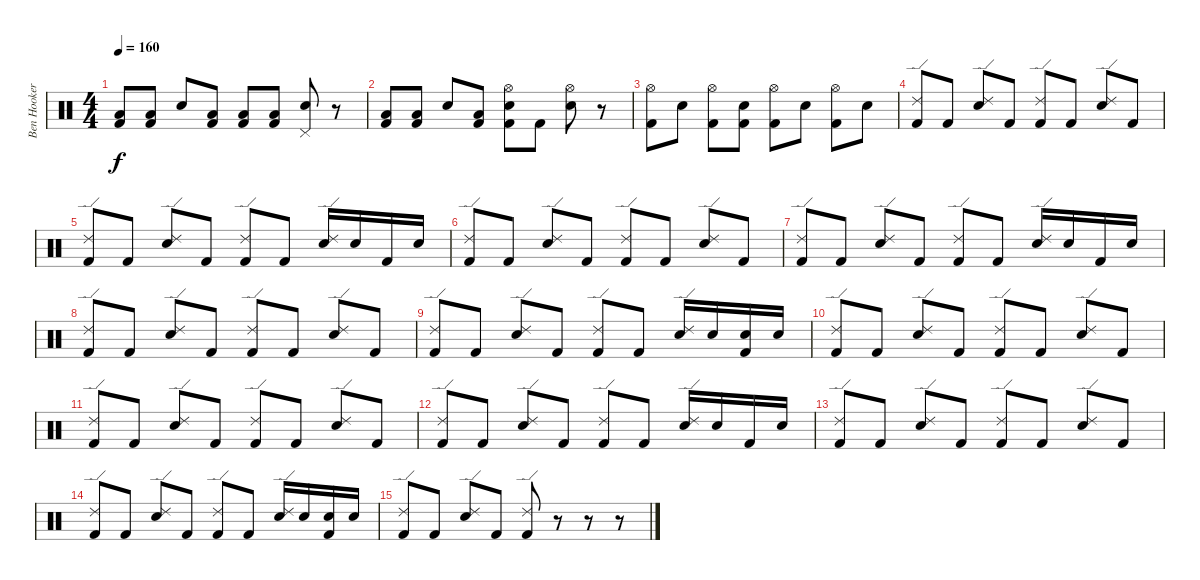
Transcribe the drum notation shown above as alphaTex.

\track ("Ben Hooker" "Ben Hooker") {instrument percussion}
\staff {score}
\articulation defaults
\ts (4 4)
\tempo 160
\clef neutral
\ks c
("Low Tom (hit)" "Kick (hit) 2").8{dy f} ("Low Tom (hit)" "Kick (hit) 2").8 "Snare (hit) 2".8 ("Low Tom (hit)" "Kick (hit) 2").8 ("Low Tom (hit)" "Kick (hit) 2").8 ("Low Tom (hit)" "Kick (hit) 2").8 ("Pedal Hi-Hat (hit)" "Snare (hit) 2").8 r.8 |
("Low Tom (hit)" "Kick (hit) 2").8 ("Low Tom (hit)" "Kick (hit) 2").8 "Snare (hit) 2".8 ("Low Tom (hit)" "Kick (hit) 2").8 ("Hi-Hat (open)" "Snare (hit) 2" "Kick (hit) 2").8 "Kick (hit) 2".8 ("Hi-Hat (open)" "Snare (hit) 2").8 r.8 |
("Hi-Hat (open)" "Kick (hit) 2").8 "Snare (hit) 2".8 ("Hi-Hat (open)" "Kick (hit) 2").8 ("Snare (hit) 2" "Kick (hit) 2").8 ("Hi-Hat (open)" "Kick (hit) 2").8 "Snare (hit) 2".8 ("Hi-Hat (open)" "Kick (hit) 2").8 "Snare (hit) 2".8 |
("Ride (edge) 2" "Kick (hit) 2").8 "Kick (hit) 2".8 ("Ride (edge) 2" "Snare (hit) 2").8 "Kick (hit) 2".8 ("Ride (edge) 2" "Kick (hit) 2").8 "Kick (hit) 2".8 ("Ride (edge) 2" "Snare (hit) 2").8 "Kick (hit) 2".8 |
("Ride (edge) 2" "Kick (hit) 2").8 "Kick (hit) 2".8 ("Ride (edge) 2" "Snare (hit) 2").8 "Kick (hit) 2".8 ("Ride (edge) 2" "Kick (hit) 2").8 "Kick (hit) 2".8 ("Ride (edge) 2" "Snare (hit) 2").16 "Snare (hit) 2".16 "Kick (hit) 2".16 "Snare (hit) 2".16 |
("Ride (edge) 2" "Kick (hit) 2").8 "Kick (hit) 2".8 ("Ride (edge) 2" "Snare (hit) 2").8 "Kick (hit) 2".8 ("Ride (edge) 2" "Kick (hit) 2").8 "Kick (hit) 2".8 ("Ride (edge) 2" "Snare (hit) 2").8 "Kick (hit) 2".8 |
("Ride (edge) 2" "Kick (hit) 2").8 "Kick (hit) 2".8 ("Ride (edge) 2" "Snare (hit) 2").8 "Kick (hit) 2".8 ("Ride (edge) 2" "Kick (hit) 2").8 "Kick (hit) 2".8 ("Ride (edge) 2" "Snare (hit) 2").16 "Snare (hit) 2".16 "Kick (hit) 2".16 "Snare (hit) 2".16 |
("Ride (edge) 2" "Kick (hit) 2").8 "Kick (hit) 2".8 ("Ride (edge) 2" "Snare (hit) 2").8 "Kick (hit) 2".8 ("Ride (edge) 2" "Kick (hit) 2").8 "Kick (hit) 2".8 ("Ride (edge) 2" "Snare (hit) 2").8 "Kick (hit) 2".8 |
("Ride (edge) 2" "Kick (hit) 2").8 "Kick (hit) 2".8 ("Ride (edge) 2" "Snare (hit) 2").8 "Kick (hit) 2".8 ("Ride (edge) 2" "Kick (hit) 2").8 "Kick (hit) 2".8 ("Ride (edge) 2" "Snare (hit) 2").16 "Snare (hit) 2".16 ("Snare (hit) 2" "Kick (hit) 2").16 "Snare (hit) 2".16 |
("Ride (edge) 2" "Kick (hit) 2").8 "Kick (hit) 2".8 ("Ride (edge) 2" "Snare (hit) 2").8 "Kick (hit) 2".8 ("Ride (edge) 2" "Kick (hit) 2").8 "Kick (hit) 2".8 ("Ride (edge) 2" "Snare (hit) 2").8 "Kick (hit) 2".8 |
("Ride (edge) 2" "Kick (hit) 2").8 "Kick (hit) 2".8 ("Ride (edge) 2" "Snare (hit) 2").8 "Kick (hit) 2".8 ("Ride (edge) 2" "Kick (hit) 2").8 "Kick (hit) 2".8 ("Ride (edge) 2" "Snare (hit) 2").8 "Kick (hit) 2".8 |
("Ride (edge) 2" "Kick (hit) 2").8 "Kick (hit) 2".8 ("Ride (edge) 2" "Snare (hit) 2").8 "Kick (hit) 2".8 ("Ride (edge) 2" "Kick (hit) 2").8 "Kick (hit) 2".8 ("Ride (edge) 2" "Snare (hit) 2").16 "Snare (hit) 2".16 "Kick (hit) 2".16 "Snare (hit) 2".16 |
("Ride (edge) 2" "Kick (hit) 2").8 "Kick (hit) 2".8 ("Ride (edge) 2" "Snare (hit) 2").8 "Kick (hit) 2".8 ("Ride (edge) 2" "Kick (hit) 2").8 "Kick (hit) 2".8 ("Ride (edge) 2" "Snare (hit) 2").8 "Kick (hit) 2".8 |
("Ride (edge) 2" "Kick (hit) 2").8 "Kick (hit) 2".8 ("Ride (edge) 2" "Snare (hit) 2").8 "Kick (hit) 2".8 ("Ride (edge) 2" "Kick (hit) 2").8 "Kick (hit) 2".8 ("Ride (edge) 2" "Snare (hit) 2").16 "Snare (hit) 2".16 ("Snare (hit) 2" "Kick (hit) 2").16 "Snare (hit) 2".16 |
("Ride (edge) 2" "Kick (hit) 2").8 "Kick (hit) 2".8 ("Ride (edge) 2" "Snare (hit) 2").8 "Kick (hit) 2".8 ("Ride (edge) 2" "Kick (hit) 2").8 r.8 r.8 r.8
